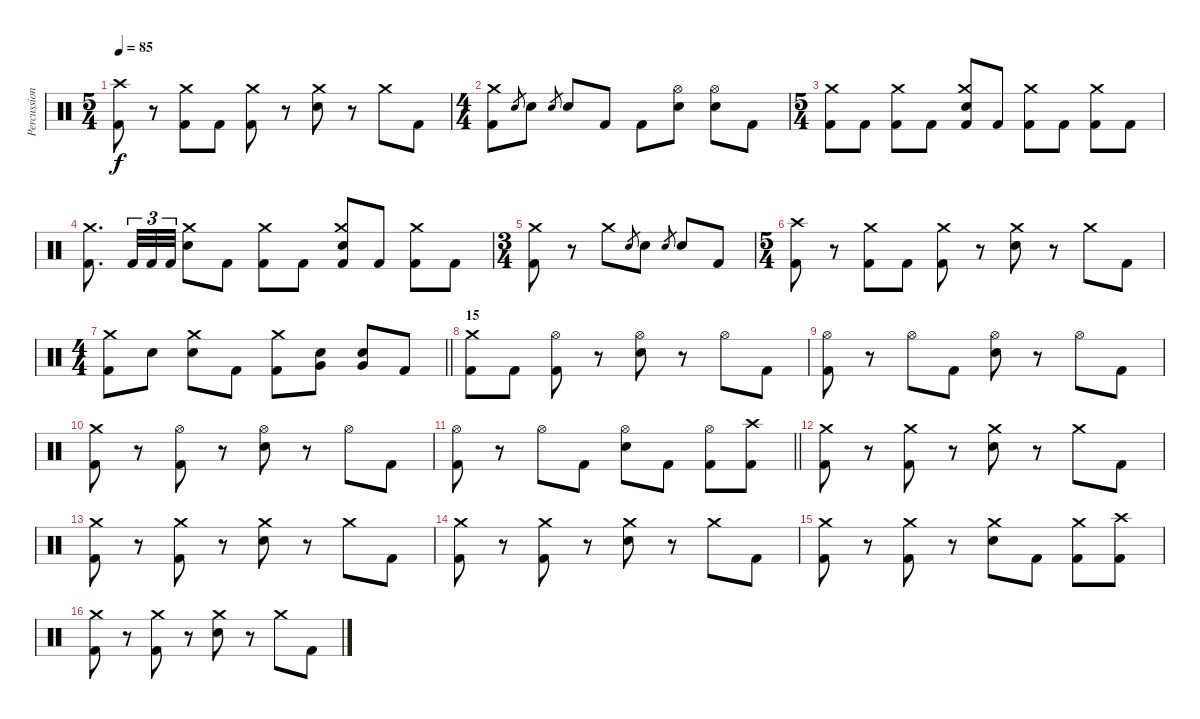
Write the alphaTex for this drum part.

\track ("Percussion" "Percussion") {instrument percussion}
\staff {score}
\articulation defaults
\ts (5 4)
\tempo 85
\clef neutral
\ks c
("Crash high (hit)" "Kick (hit) 2").8{dy f} r.8 ("Crash medium (hit)" "Kick (hit) 2").8 "Kick (hit) 2".8 ("Crash medium (hit)" "Kick (hit) 2").8 r.8 ("Crash medium (hit)" "Snare (hit) 2").8 r.8 "Crash medium (hit)".8 "Kick (hit) 2".8 |
\ts (4 4)
("Crash medium (hit)" "Kick (hit) 2").8 "Snare (hit) 2".8{gr} "Snare (hit) 2".8 "Snare (hit) 2".8{gr} "Snare (hit) 2".8 "Kick (hit) 2".8 "Kick (hit) 2".8 ("Hi-Hat (open)" "Snare (hit) 2").8 ("Hi-Hat (open)" "Snare (hit) 2").8 "Kick (hit) 2".8 |
\ts (5 4)
("Crash medium (hit)" "Kick (hit) 2").8 "Kick (hit) 2".8 ("Crash medium (hit)" "Kick (hit) 2").8 "Kick (hit) 2".8 ("Crash medium (hit)" "Snare (hit) 2" "Kick (hit) 2").8 "Kick (hit) 2".8 ("Crash medium (hit)" "Kick (hit) 2").8 "Kick (hit) 2".8 ("Crash medium (hit)" "Kick (hit) 2").8 "Kick (hit) 2".8 |
("Crash medium (hit)" "Kick (hit) 2").8{d} "Kick (hit) 2".32{tu (3 2)} "Kick (hit) 2".32{tu (3 2)} "Kick (hit) 2".32{tu (3 2)} ("Crash medium (hit)" "Snare (hit) 2").8 "Kick (hit) 2".8 ("Crash medium (hit)" "Kick (hit) 2").8 "Kick (hit) 2".8 ("Crash medium (hit)" "Snare (hit) 2" "Kick (hit) 2").8 "Kick (hit) 2".8 ("Crash medium (hit)" "Kick (hit) 2").8 "Kick (hit) 2".8 |
\ts (3 4)
("Crash medium (hit)" "Kick (hit) 2").8 r.8 "Crash medium (hit)".8 "Snare (hit) 2".8{gr} "Snare (hit) 2".8 "Snare (hit) 2".8{gr} "Snare (hit) 2".8 "Kick (hit) 2".8 |
\ts (5 4)
("Crash high (hit)" "Kick (hit) 2").8 r.8 ("Crash medium (hit)" "Kick (hit) 2").8 "Kick (hit) 2".8 ("Crash medium (hit)" "Kick (hit) 2").8 r.8 ("Crash medium (hit)" "Snare (hit) 2").8 r.8 "Crash medium (hit)".8 "Kick (hit) 2".8 |
\ts (4 4)
\barLineRight lightlight
("Crash medium (hit)" "Kick (hit) 2").8 "Snare (hit) 2".8 ("Crash medium (hit)" "Snare (hit) 2").8 "Kick (hit) 2".8 ("Crash medium (hit)" "Kick (hit) 2").8 ("Snare (hit) 2" "Very Low Tom (hit)").8{bu 60} ("Snare (hit) 2" "Very Low Tom (hit)").8{bu 60} "Kick (hit) 2".8 |
\section ("" "15")
("Crash medium (hit)" "Kick (hit) 2").8 "Kick (hit) 2".8 ("Hi-Hat (open)" "Kick (hit) 2").8 r.8 ("Hi-Hat (open)" "Snare (hit) 2").8 r.8 "Hi-Hat (open)".8 "Kick (hit) 2".8 |
("Hi-Hat (open)" "Kick (hit) 2").8 r.8 "Hi-Hat (open)".8 "Kick (hit) 2".8 ("Hi-Hat (open)" "Snare (hit) 2").8 r.8 "Hi-Hat (open)".8 "Kick (hit) 2".8 |
("Crash medium (hit)" "Kick (hit) 2").8 r.8 ("Hi-Hat (open)" "Kick (hit) 2").8 r.8 ("Hi-Hat (open)" "Snare (hit) 2").8 r.8 "Hi-Hat (open)".8 "Kick (hit) 2".8 |
\barLineRight lightlight
("Hi-Hat (open)" "Kick (hit) 2").8 r.8 "Hi-Hat (open)".8 "Kick (hit) 2".8 ("Hi-Hat (open)" "Snare (hit) 2").8 "Kick (hit) 2".8 ("Hi-Hat (open)" "Kick (hit) 2").8 ("Crash high (hit)" "Kick (hit) 2").8 |
("Crash medium (hit)" "Kick (hit) 2").8 r.8 ("Crash medium (hit)" "Kick (hit) 2").8 r.8 ("Crash medium (hit)" "Snare (hit) 2").8 r.8 "Crash medium (hit)".8 "Kick (hit) 2".8 |
("Crash medium (hit)" "Kick (hit) 2").8 r.8 ("Crash medium (hit)" "Kick (hit) 2").8 r.8 ("Crash medium (hit)" "Snare (hit) 2").8 r.8 "Crash medium (hit)".8 "Kick (hit) 2".8 |
("Crash medium (hit)" "Kick (hit) 2").8 r.8 ("Crash medium (hit)" "Kick (hit) 2").8 r.8 ("Crash medium (hit)" "Snare (hit) 2").8 r.8 "Crash medium (hit)".8 "Kick (hit) 2".8 |
("Crash medium (hit)" "Kick (hit) 2").8 r.8 ("Crash medium (hit)" "Kick (hit) 2").8 r.8 ("Crash medium (hit)" "Snare (hit) 2").8 "Kick (hit) 2".8 ("Crash medium (hit)" "Kick (hit) 2").8 ("Crash high (hit)" "Kick (hit) 2").8 |
("Crash medium (hit)" "Kick (hit) 2").8 r.8 ("Crash medium (hit)" "Kick (hit) 2").8 r.8 ("Crash medium (hit)" "Snare (hit) 2").8 r.8 "Crash medium (hit)".8 "Kick (hit) 2".8
